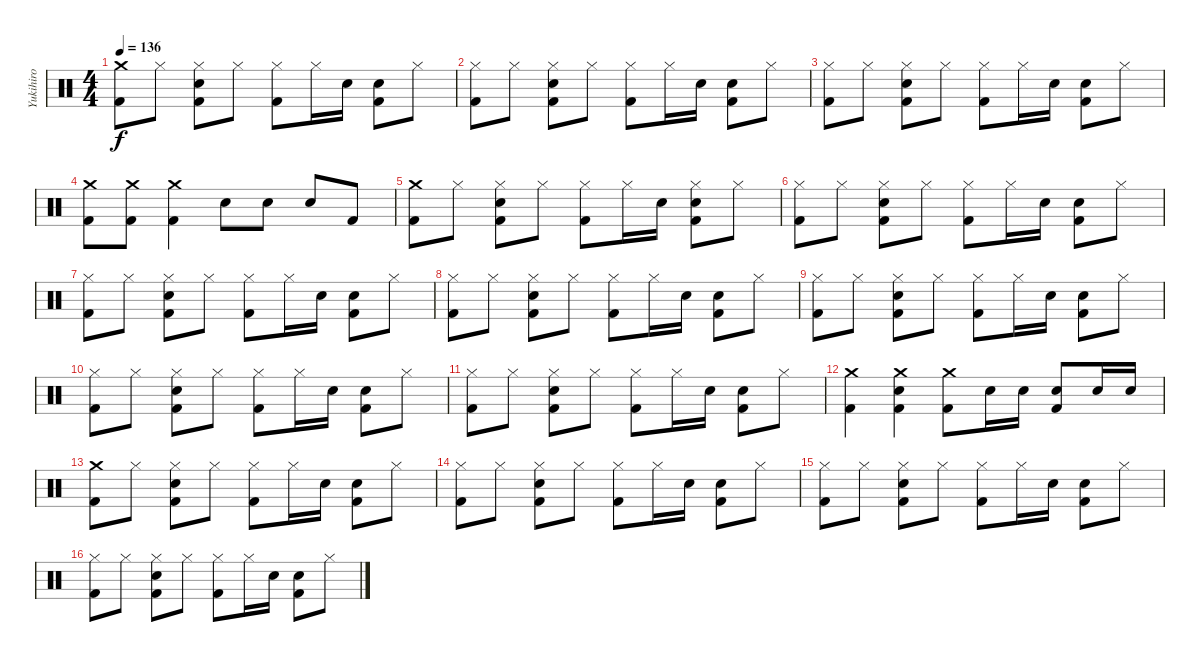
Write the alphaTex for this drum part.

\track ("Yukihiro" "Yukihiro") {instrument percussion}
\staff {score}
\articulation defaults
\ts (4 4)
\tempo 136
\clef neutral
\ks c
("Crash medium (hit)" "Kick (hit) 2").8{dy f} "Hi-Hat (closed)".8 ("Hi-Hat (closed)" "Snare (hit) 2" "Kick (hit) 2").8 "Hi-Hat (closed)".8 ("Hi-Hat (closed)" "Kick (hit) 2").8 "Hi-Hat (closed)".16 "Snare (hit) 2".16 ("Snare (hit) 2" "Kick (hit) 2").8 "Hi-Hat (closed)".8 |
("Hi-Hat (closed)" "Kick (hit) 2").8 "Hi-Hat (closed)".8 ("Hi-Hat (closed)" "Snare (hit) 2" "Kick (hit) 2").8 "Hi-Hat (closed)".8 ("Hi-Hat (closed)" "Kick (hit) 2").8 "Hi-Hat (closed)".16 "Snare (hit) 2".16 ("Snare (hit) 2" "Kick (hit) 2").8 "Hi-Hat (closed)".8 |
("Hi-Hat (closed)" "Kick (hit) 2").8 "Hi-Hat (closed)".8 ("Hi-Hat (closed)" "Snare (hit) 2" "Kick (hit) 2").8 "Hi-Hat (closed)".8 ("Hi-Hat (closed)" "Kick (hit) 2").8 "Hi-Hat (closed)".16 "Snare (hit) 2".16 ("Snare (hit) 2" "Kick (hit) 2").8 "Hi-Hat (closed)".8 |
("Crash medium (hit)" "Kick (hit) 2").8 ("Crash medium (hit)" "Kick (hit) 2").8 ("Crash medium (hit)" "Kick (hit) 2").4 "Snare (hit) 2".8 "Snare (hit) 2".8 "Snare (hit) 2".8 "Kick (hit) 2".8 |
("Crash medium (hit)" "Kick (hit) 2").8 "Hi-Hat (closed)".8 ("Hi-Hat (closed)" "Snare (hit) 2" "Kick (hit) 2").8 "Hi-Hat (closed)".8 ("Hi-Hat (closed)" "Kick (hit) 2").8 "Hi-Hat (closed)".16 "Snare (hit) 2".16 ("Hi-Hat (closed)" "Snare (hit) 2" "Kick (hit) 2").8 "Hi-Hat (closed)".8 |
("Hi-Hat (closed)" "Kick (hit) 2").8 "Hi-Hat (closed)".8 ("Hi-Hat (closed)" "Snare (hit) 2" "Kick (hit) 2").8 "Hi-Hat (closed)".8 ("Hi-Hat (closed)" "Kick (hit) 2").8 "Hi-Hat (closed)".16 "Snare (hit) 2".16 ("Snare (hit) 2" "Kick (hit) 2").8 "Hi-Hat (closed)".8 |
("Hi-Hat (closed)" "Kick (hit) 2").8 "Hi-Hat (closed)".8 ("Hi-Hat (closed)" "Snare (hit) 2" "Kick (hit) 2").8 "Hi-Hat (closed)".8 ("Hi-Hat (closed)" "Kick (hit) 2").8 "Hi-Hat (closed)".16 "Snare (hit) 2".16 ("Snare (hit) 2" "Kick (hit) 2").8 "Hi-Hat (closed)".8 |
("Hi-Hat (closed)" "Kick (hit) 2").8 "Hi-Hat (closed)".8 ("Hi-Hat (closed)" "Snare (hit) 2" "Kick (hit) 2").8 "Hi-Hat (closed)".8 ("Hi-Hat (closed)" "Kick (hit) 2").8 "Hi-Hat (closed)".16 "Snare (hit) 2".16 ("Snare (hit) 2" "Kick (hit) 2").8 "Hi-Hat (closed)".8 |
("Hi-Hat (closed)" "Kick (hit) 2").8 "Hi-Hat (closed)".8 ("Hi-Hat (closed)" "Snare (hit) 2" "Kick (hit) 2").8 "Hi-Hat (closed)".8 ("Hi-Hat (closed)" "Kick (hit) 2").8 "Hi-Hat (closed)".16 "Snare (hit) 2".16 ("Snare (hit) 2" "Kick (hit) 2").8 "Hi-Hat (closed)".8 |
("Hi-Hat (closed)" "Kick (hit) 2").8 "Hi-Hat (closed)".8 ("Hi-Hat (closed)" "Snare (hit) 2" "Kick (hit) 2").8 "Hi-Hat (closed)".8 ("Hi-Hat (closed)" "Kick (hit) 2").8 "Hi-Hat (closed)".16 "Snare (hit) 2".16 ("Snare (hit) 2" "Kick (hit) 2").8 "Hi-Hat (closed)".8 |
("Hi-Hat (closed)" "Kick (hit) 2").8 "Hi-Hat (closed)".8 ("Hi-Hat (closed)" "Snare (hit) 2" "Kick (hit) 2").8 "Hi-Hat (closed)".8 ("Hi-Hat (closed)" "Kick (hit) 2").8 "Hi-Hat (closed)".16 "Snare (hit) 2".16 ("Snare (hit) 2" "Kick (hit) 2").8 "Hi-Hat (closed)".8 |
("Crash medium (hit)" "Kick (hit) 2").4 ("Crash medium (hit)" "Snare (hit) 2" "Kick (hit) 2").4 ("Crash medium (hit)" "Kick (hit) 2").8 "Snare (hit) 2".16 "Snare (hit) 2".16 ("Snare (hit) 2" "Kick (hit) 2").8 "Snare (hit) 2".16 "Snare (hit) 2".16 |
("Crash medium (hit)" "Kick (hit) 2").8 "Hi-Hat (closed)".8 ("Hi-Hat (closed)" "Snare (hit) 2" "Kick (hit) 2").8 "Hi-Hat (closed)".8 ("Hi-Hat (closed)" "Kick (hit) 2").8 "Hi-Hat (closed)".16 "Snare (hit) 2".16 ("Snare (hit) 2" "Kick (hit) 2").8 "Hi-Hat (closed)".8 |
("Hi-Hat (closed)" "Kick (hit) 2").8 "Hi-Hat (closed)".8 ("Hi-Hat (closed)" "Snare (hit) 2" "Kick (hit) 2").8 "Hi-Hat (closed)".8 ("Hi-Hat (closed)" "Kick (hit) 2").8 "Hi-Hat (closed)".16 "Snare (hit) 2".16 ("Snare (hit) 2" "Kick (hit) 2").8 "Hi-Hat (closed)".8 |
("Hi-Hat (closed)" "Kick (hit) 2").8 "Hi-Hat (closed)".8 ("Hi-Hat (closed)" "Snare (hit) 2" "Kick (hit) 2").8 "Hi-Hat (closed)".8 ("Hi-Hat (closed)" "Kick (hit) 2").8 "Hi-Hat (closed)".16 "Snare (hit) 2".16 ("Snare (hit) 2" "Kick (hit) 2").8 "Hi-Hat (closed)".8 |
("Hi-Hat (closed)" "Kick (hit) 2").8 "Hi-Hat (closed)".8 ("Hi-Hat (closed)" "Snare (hit) 2" "Kick (hit) 2").8 "Hi-Hat (closed)".8 ("Hi-Hat (closed)" "Kick (hit) 2").8 "Hi-Hat (closed)".16 "Snare (hit) 2".16 ("Snare (hit) 2" "Kick (hit) 2").8 "Hi-Hat (closed)".8
